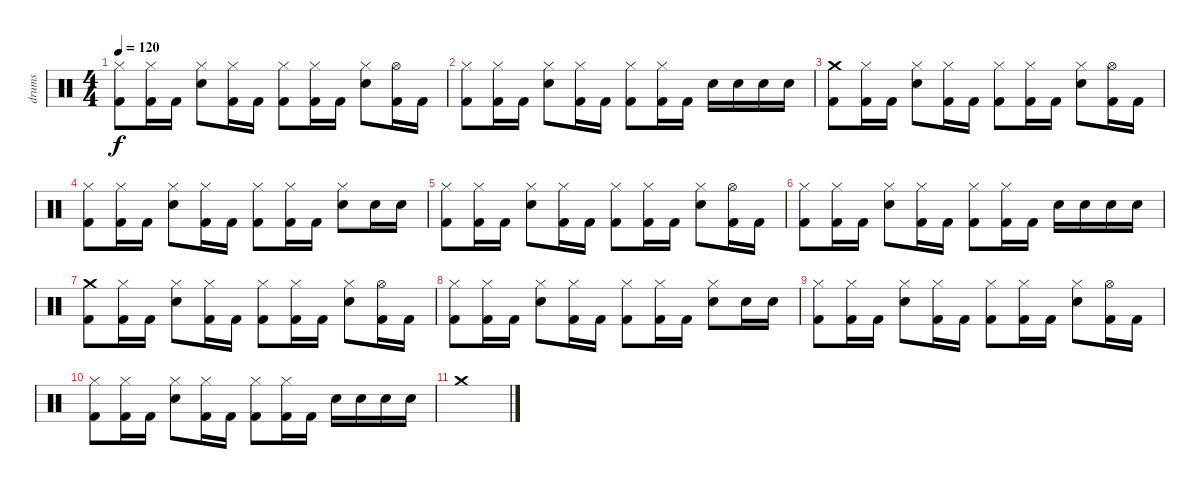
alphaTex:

\track ("drums" "drums") {instrument percussion}
\staff {score}
\articulation defaults
\ts (4 4)
\tempo 120
\clef neutral
\ks c
("Hi-Hat (closed)" "Kick (hit) 2").8{dy f} ("Hi-Hat (closed)" "Kick (hit) 2").16 "Kick (hit) 2".16 ("Hi-Hat (closed)" "Snare (hit) 2").8 ("Hi-Hat (closed)" "Kick (hit) 2").16 "Kick (hit) 2".16 ("Hi-Hat (closed)" "Kick (hit) 2").8 ("Hi-Hat (closed)" "Kick (hit) 2").16 "Kick (hit) 2".16 ("Hi-Hat (closed)" "Snare (hit) 2").8 ("Hi-Hat (open)" "Kick (hit) 2").16 "Kick (hit) 2".16 |
("Hi-Hat (closed)" "Kick (hit) 2").8 ("Hi-Hat (closed)" "Kick (hit) 2").16 "Kick (hit) 2".16 ("Hi-Hat (closed)" "Snare (hit) 2").8 ("Hi-Hat (closed)" "Kick (hit) 2").16 "Kick (hit) 2".16 ("Hi-Hat (closed)" "Kick (hit) 2").8 ("Hi-Hat (closed)" "Kick (hit) 2").16 "Kick (hit) 2".16 "Snare (hit) 2".16 "Snare (hit) 2".16 "Snare (hit) 2".16 "Snare (hit) 2".16 |
("Crash medium (hit)" "Kick (hit) 2").8 ("Hi-Hat (closed)" "Kick (hit) 2").16 "Kick (hit) 2".16 ("Hi-Hat (closed)" "Snare (hit) 2").8 ("Hi-Hat (closed)" "Kick (hit) 2").16 "Kick (hit) 2".16 ("Hi-Hat (closed)" "Kick (hit) 2").8 ("Hi-Hat (closed)" "Kick (hit) 2").16 "Kick (hit) 2".16 ("Hi-Hat (closed)" "Snare (hit) 2").8 ("Hi-Hat (open)" "Kick (hit) 2").16 "Kick (hit) 2".16 |
("Hi-Hat (closed)" "Kick (hit) 2").8 ("Hi-Hat (closed)" "Kick (hit) 2").16 "Kick (hit) 2".16 ("Hi-Hat (closed)" "Snare (hit) 2").8 ("Hi-Hat (closed)" "Kick (hit) 2").16 "Kick (hit) 2".16 ("Hi-Hat (closed)" "Kick (hit) 2").8 ("Hi-Hat (closed)" "Kick (hit) 2").16 "Kick (hit) 2".16 ("Hi-Hat (closed)" "Snare (hit) 2").8 "Snare (hit) 2".16 "Snare (hit) 2".16 |
("Hi-Hat (closed)" "Kick (hit) 2").8 ("Hi-Hat (closed)" "Kick (hit) 2").16 "Kick (hit) 2".16 ("Hi-Hat (closed)" "Snare (hit) 2").8 ("Hi-Hat (closed)" "Kick (hit) 2").16 "Kick (hit) 2".16 ("Hi-Hat (closed)" "Kick (hit) 2").8 ("Hi-Hat (closed)" "Kick (hit) 2").16 "Kick (hit) 2".16 ("Hi-Hat (closed)" "Snare (hit) 2").8 ("Hi-Hat (open)" "Kick (hit) 2").16 "Kick (hit) 2".16 |
("Hi-Hat (closed)" "Kick (hit) 2").8 ("Hi-Hat (closed)" "Kick (hit) 2").16 "Kick (hit) 2".16 ("Hi-Hat (closed)" "Snare (hit) 2").8 ("Hi-Hat (closed)" "Kick (hit) 2").16 "Kick (hit) 2".16 ("Hi-Hat (closed)" "Kick (hit) 2").8 ("Hi-Hat (closed)" "Kick (hit) 2").16 "Kick (hit) 2".16 "Snare (hit) 2".16 "Snare (hit) 2".16 "Snare (hit) 2".16 "Snare (hit) 2".16 |
("Crash medium (hit)" "Kick (hit) 2").8 ("Hi-Hat (closed)" "Kick (hit) 2").16 "Kick (hit) 2".16 ("Hi-Hat (closed)" "Snare (hit) 2").8 ("Hi-Hat (closed)" "Kick (hit) 2").16 "Kick (hit) 2".16 ("Hi-Hat (closed)" "Kick (hit) 2").8 ("Hi-Hat (closed)" "Kick (hit) 2").16 "Kick (hit) 2".16 ("Hi-Hat (closed)" "Snare (hit) 2").8 ("Hi-Hat (open)" "Kick (hit) 2").16 "Kick (hit) 2".16 |
("Hi-Hat (closed)" "Kick (hit) 2").8 ("Hi-Hat (closed)" "Kick (hit) 2").16 "Kick (hit) 2".16 ("Hi-Hat (closed)" "Snare (hit) 2").8 ("Hi-Hat (closed)" "Kick (hit) 2").16 "Kick (hit) 2".16 ("Hi-Hat (closed)" "Kick (hit) 2").8 ("Hi-Hat (closed)" "Kick (hit) 2").16 "Kick (hit) 2".16 ("Hi-Hat (closed)" "Snare (hit) 2").8 "Snare (hit) 2".16 "Snare (hit) 2".16 |
("Hi-Hat (closed)" "Kick (hit) 2").8 ("Hi-Hat (closed)" "Kick (hit) 2").16 "Kick (hit) 2".16 ("Hi-Hat (closed)" "Snare (hit) 2").8 ("Hi-Hat (closed)" "Kick (hit) 2").16 "Kick (hit) 2".16 ("Hi-Hat (closed)" "Kick (hit) 2").8 ("Hi-Hat (closed)" "Kick (hit) 2").16 "Kick (hit) 2".16 ("Hi-Hat (closed)" "Snare (hit) 2").8 ("Hi-Hat (open)" "Kick (hit) 2").16 "Kick (hit) 2".16 |
("Hi-Hat (closed)" "Kick (hit) 2").8 ("Hi-Hat (closed)" "Kick (hit) 2").16 "Kick (hit) 2".16 ("Hi-Hat (closed)" "Snare (hit) 2").8 ("Hi-Hat (closed)" "Kick (hit) 2").16 "Kick (hit) 2".16 ("Hi-Hat (closed)" "Kick (hit) 2").8 ("Hi-Hat (closed)" "Kick (hit) 2").16 "Kick (hit) 2".16 "Snare (hit) 2".16 "Snare (hit) 2".16 "Snare (hit) 2".16 "Snare (hit) 2".16 |
"Crash medium (hit)".1
